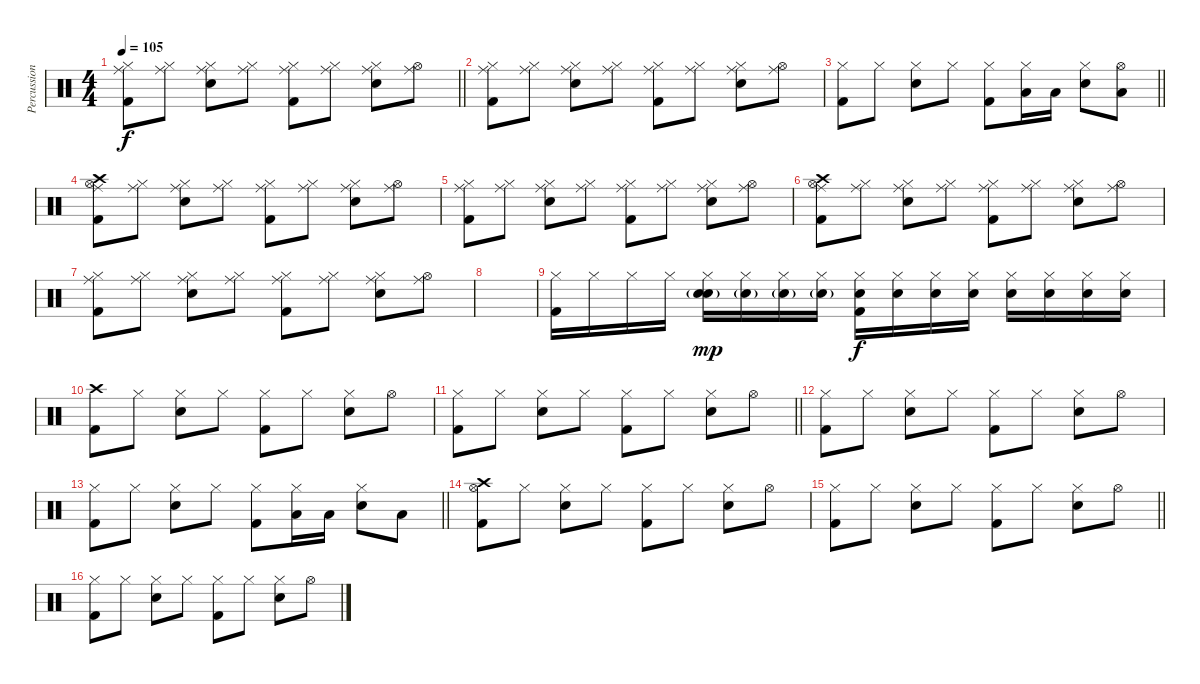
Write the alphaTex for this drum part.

\track ("Percussion" "Percussion") {instrument percussion}
\staff {score}
\articulation defaults
\ts (4 4)
\tempo 105
\clef neutral
\barLineRight lightlight
\ks c
("Ride (middle)" "Kick (hit) 2" "Hi-Hat (closed)").8{dy f} ("Ride (middle)" "Hi-Hat (closed)").8 ("Ride (middle)" "Snare (hit) 2" "Hi-Hat (closed)").8 ("Ride (middle)" "Hi-Hat (closed)").8 ("Ride (middle)" "Kick (hit) 2" "Hi-Hat (closed)").8 ("Ride (middle)" "Hi-Hat (closed)").8 ("Ride (middle)" "Snare (hit) 2" "Hi-Hat (closed)").8 ("Ride (middle)" "Hi-Hat (open)").8 |
("Ride (middle)" "Kick (hit) 2" "Hi-Hat (closed)").8 ("Ride (middle)" "Hi-Hat (closed)").8 ("Ride (middle)" "Snare (hit) 2" "Hi-Hat (closed)").8 ("Ride (middle)" "Hi-Hat (closed)").8 ("Ride (middle)" "Kick (hit) 2" "Hi-Hat (closed)").8 ("Ride (middle)" "Hi-Hat (closed)").8 ("Ride (middle)" "Snare (hit) 2" "Hi-Hat (closed)").8 ("Ride (middle)" "Hi-Hat (open)").8 |
\barLineRight lightlight
("Kick (hit) 2" "Hi-Hat (closed)").8 "Hi-Hat (closed)".8 ("Snare (hit) 2" "Hi-Hat (closed)").8 "Hi-Hat (closed)".8 ("Kick (hit) 2" "Hi-Hat (closed)").8 ("Low Tom (hit)" "Hi-Hat (closed)").16 "Low Tom (hit)".16 ("Snare (hit) 2" "Hi-Hat (closed)").8 ("Hi-Hat (open)" "Low Tom (hit)").8 |
("Ride (middle)" "Hi-Hat (open)" "Kick (hit) 2" "Crash high (hit)").8 ("Ride (middle)" "Hi-Hat (closed)").8 ("Ride (middle)" "Snare (hit) 2" "Hi-Hat (closed)").8 ("Ride (middle)" "Hi-Hat (closed)").8 ("Ride (middle)" "Kick (hit) 2" "Hi-Hat (closed)").8 ("Ride (middle)" "Hi-Hat (closed)").8 ("Ride (middle)" "Snare (hit) 2" "Hi-Hat (closed)").8 ("Ride (middle)" "Hi-Hat (open)").8 |
("Ride (middle)" "Kick (hit) 2" "Hi-Hat (closed)").8 ("Ride (middle)" "Hi-Hat (closed)").8 ("Ride (middle)" "Snare (hit) 2" "Hi-Hat (closed)").8 ("Ride (middle)" "Hi-Hat (closed)").8 ("Ride (middle)" "Kick (hit) 2" "Hi-Hat (closed)").8 ("Ride (middle)" "Hi-Hat (closed)").8 ("Ride (middle)" "Snare (hit) 2" "Hi-Hat (closed)").8 ("Ride (middle)" "Hi-Hat (open)").8 |
("Ride (middle)" "Hi-Hat (open)" "Kick (hit) 2" "Crash high (hit)").8 ("Ride (middle)" "Hi-Hat (closed)").8 ("Ride (middle)" "Snare (hit) 2" "Hi-Hat (closed)").8 ("Ride (middle)" "Hi-Hat (closed)").8 ("Ride (middle)" "Kick (hit) 2" "Hi-Hat (closed)").8 ("Ride (middle)" "Hi-Hat (closed)").8 ("Ride (middle)" "Snare (hit) 2" "Hi-Hat (closed)").8 ("Ride (middle)" "Hi-Hat (open)").8 |
("Ride (middle)" "Kick (hit) 2" "Hi-Hat (closed)").8 ("Ride (middle)" "Hi-Hat (closed)").8 ("Ride (middle)" "Snare (hit) 2" "Hi-Hat (closed)").8 ("Ride (middle)" "Hi-Hat (closed)").8 ("Ride (middle)" "Kick (hit) 2" "Hi-Hat (closed)").8 ("Ride (middle)" "Hi-Hat (closed)").8 ("Ride (middle)" "Snare (hit) 2" "Hi-Hat (closed)").8 ("Ride (middle)" "Hi-Hat (open)").8 |
|
("Hi-Hat (closed)" "Kick (hit) 2").16 "Hi-Hat (closed)".16 "Hi-Hat (closed)".16 "Hi-Hat (closed)".16 ("Snare (hit) 2"{g} "Hi-Hat (closed)" "Snare (hit) 2").16{dy mp} ("Snare (hit) 2"{g} "Hi-Hat (closed)").16 ("Snare (hit) 2"{g} "Hi-Hat (closed)").16 ("Snare (hit) 2"{g} "Hi-Hat (closed)").16 ("Snare (hit) 2" "Hi-Hat (closed)" "Kick (hit) 2").16{dy f} ("Snare (hit) 2" "Hi-Hat (closed)").16 ("Snare (hit) 2" "Hi-Hat (closed)").16 ("Snare (hit) 2" "Hi-Hat (closed)").16 ("Snare (hit) 2" "Hi-Hat (closed)").16 ("Snare (hit) 2" "Hi-Hat (closed)").16 ("Snare (hit) 2" "Hi-Hat (closed)").16 ("Snare (hit) 2" "Hi-Hat (closed)").16 |
("Kick (hit) 2" "Crash high (hit)").8 "Hi-Hat (closed)".8 ("Snare (hit) 2" "Hi-Hat (closed)").8 "Hi-Hat (closed)".8 ("Kick (hit) 2" "Hi-Hat (closed)").8 "Hi-Hat (closed)".8 ("Snare (hit) 2" "Hi-Hat (closed)").8 "Hi-Hat (open)".8 |
\barLineRight lightlight
("Kick (hit) 2" "Hi-Hat (closed)").8 "Hi-Hat (closed)".8 ("Snare (hit) 2" "Hi-Hat (closed)").8 "Hi-Hat (closed)".8 ("Kick (hit) 2" "Hi-Hat (closed)").8 "Hi-Hat (closed)".8 ("Snare (hit) 2" "Hi-Hat (closed)").8 "Hi-Hat (open)".8 |
("Kick (hit) 2" "Hi-Hat (closed)").8 "Hi-Hat (closed)".8 ("Snare (hit) 2" "Hi-Hat (closed)").8 "Hi-Hat (closed)".8 ("Kick (hit) 2" "Hi-Hat (closed)").8 "Hi-Hat (closed)".8 ("Snare (hit) 2" "Hi-Hat (closed)").8 "Hi-Hat (open)".8 |
\barLineRight lightlight
("Kick (hit) 2" "Hi-Hat (closed)").8 "Hi-Hat (closed)".8 ("Snare (hit) 2" "Hi-Hat (closed)").8 "Hi-Hat (closed)".8 ("Kick (hit) 2" "Hi-Hat (closed)").8 ("Low Tom (hit)" "Hi-Hat (closed)").16 "Low Tom (hit)".16 ("Snare (hit) 2" "Hi-Hat (closed)").8 "Low Tom (hit)".8 |
("Hi-Hat (open)" "Kick (hit) 2" "Crash high (hit)").8 "Hi-Hat (closed)".8 ("Snare (hit) 2" "Hi-Hat (closed)").8 "Hi-Hat (closed)".8 ("Kick (hit) 2" "Hi-Hat (closed)").8 "Hi-Hat (closed)".8 ("Snare (hit) 2" "Hi-Hat (closed)").8 "Hi-Hat (open)".8 |
\barLineRight lightlight
("Kick (hit) 2" "Hi-Hat (closed)").8 "Hi-Hat (closed)".8 ("Snare (hit) 2" "Hi-Hat (closed)").8 "Hi-Hat (closed)".8 ("Kick (hit) 2" "Hi-Hat (closed)").8 "Hi-Hat (closed)".8 ("Snare (hit) 2" "Hi-Hat (closed)").8 "Hi-Hat (open)".8 |
("Kick (hit) 2" "Hi-Hat (closed)").8 "Hi-Hat (closed)".8 ("Snare (hit) 2" "Hi-Hat (closed)").8 "Hi-Hat (closed)".8 ("Kick (hit) 2" "Hi-Hat (closed)").8 "Hi-Hat (closed)".8 ("Snare (hit) 2" "Hi-Hat (closed)").8 "Hi-Hat (open)".8
